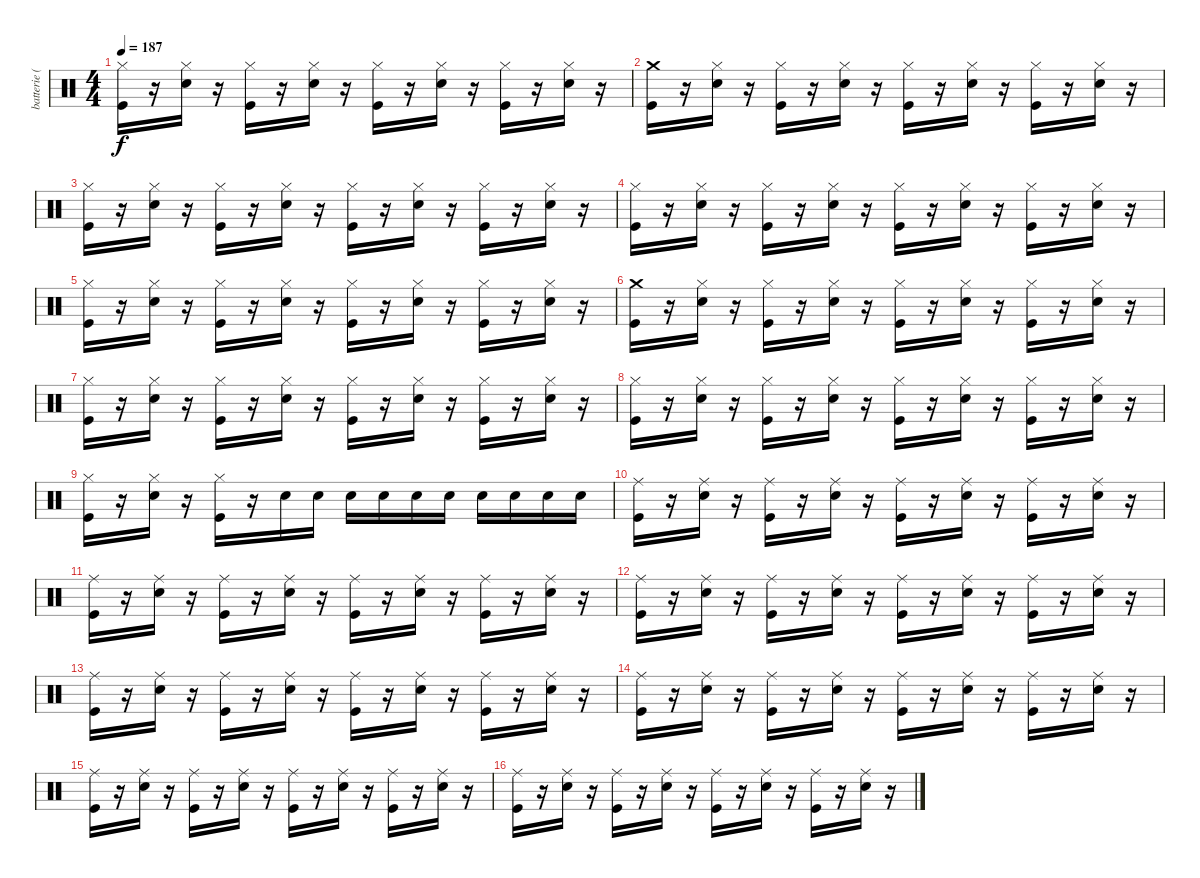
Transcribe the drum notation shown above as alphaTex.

\track ("batterie ( Mike ) " "batterie (") {instrument percussion}
\staff {score}
\articulation defaults
\ts (4 4)
\tempo 187
\clef neutral
\ks c
("Hi-Hat (closed)" "Kick (hit)").16{dy f} r.16 ("Hi-Hat (closed)" "Snare (hit) 2").16 r.16 ("Hi-Hat (closed)" "Kick (hit)").16 r.16 ("Hi-Hat (closed)" "Snare (hit) 2").16 r.16 ("Hi-Hat (closed)" "Kick (hit)").16 r.16 ("Hi-Hat (closed)" "Snare (hit) 2").16 r.16 ("Hi-Hat (closed)" "Kick (hit)").16 r.16 ("Hi-Hat (closed)" "Snare (hit) 2").16 r.16 |
("Crash medium (hit)" "Kick (hit)").16 r.16 ("Hi-Hat (closed)" "Snare (hit) 2").16 r.16 ("Hi-Hat (closed)" "Kick (hit)").16 r.16 ("Hi-Hat (closed)" "Snare (hit) 2").16 r.16 ("Hi-Hat (closed)" "Kick (hit)").16 r.16 ("Hi-Hat (closed)" "Snare (hit) 2").16 r.16 ("Hi-Hat (closed)" "Kick (hit)").16 r.16 ("Hi-Hat (closed)" "Snare (hit) 2").16 r.16 |
("Hi-Hat (closed)" "Kick (hit)").16 r.16 ("Hi-Hat (closed)" "Snare (hit) 2").16 r.16 ("Hi-Hat (closed)" "Kick (hit)").16 r.16 ("Hi-Hat (closed)" "Snare (hit) 2").16 r.16 ("Hi-Hat (closed)" "Kick (hit)").16 r.16 ("Hi-Hat (closed)" "Snare (hit) 2").16 r.16 ("Hi-Hat (closed)" "Kick (hit)").16 r.16 ("Hi-Hat (closed)" "Snare (hit) 2").16 r.16 |
("Hi-Hat (closed)" "Kick (hit)").16 r.16 ("Hi-Hat (closed)" "Snare (hit) 2").16 r.16 ("Hi-Hat (closed)" "Kick (hit)").16 r.16 ("Hi-Hat (closed)" "Snare (hit) 2").16 r.16 ("Hi-Hat (closed)" "Kick (hit)").16 r.16 ("Hi-Hat (closed)" "Snare (hit) 2").16 r.16 ("Hi-Hat (closed)" "Kick (hit)").16 r.16 ("Hi-Hat (closed)" "Snare (hit) 2").16 r.16 |
("Hi-Hat (closed)" "Kick (hit)").16 r.16 ("Hi-Hat (closed)" "Snare (hit) 2").16 r.16 ("Hi-Hat (closed)" "Kick (hit)").16 r.16 ("Hi-Hat (closed)" "Snare (hit) 2").16 r.16 ("Hi-Hat (closed)" "Kick (hit)").16 r.16 ("Hi-Hat (closed)" "Snare (hit) 2").16 r.16 ("Hi-Hat (closed)" "Kick (hit)").16 r.16 ("Hi-Hat (closed)" "Snare (hit) 2").16 r.16 |
("Crash medium (hit)" "Kick (hit)").16 r.16 ("Hi-Hat (closed)" "Snare (hit) 2").16 r.16 ("Hi-Hat (closed)" "Kick (hit)").16 r.16 ("Hi-Hat (closed)" "Snare (hit) 2").16 r.16 ("Hi-Hat (closed)" "Kick (hit)").16 r.16 ("Hi-Hat (closed)" "Snare (hit) 2").16 r.16 ("Hi-Hat (closed)" "Kick (hit)").16 r.16 ("Hi-Hat (closed)" "Snare (hit) 2").16 r.16 |
("Hi-Hat (closed)" "Kick (hit)").16 r.16 ("Hi-Hat (closed)" "Snare (hit) 2").16 r.16 ("Hi-Hat (closed)" "Kick (hit)").16 r.16 ("Hi-Hat (closed)" "Snare (hit) 2").16 r.16 ("Hi-Hat (closed)" "Kick (hit)").16 r.16 ("Hi-Hat (closed)" "Snare (hit) 2").16 r.16 ("Hi-Hat (closed)" "Kick (hit)").16 r.16 ("Hi-Hat (closed)" "Snare (hit) 2").16 r.16 |
("Hi-Hat (closed)" "Kick (hit)").16 r.16 ("Hi-Hat (closed)" "Snare (hit) 2").16 r.16 ("Hi-Hat (closed)" "Kick (hit)").16 r.16 ("Hi-Hat (closed)" "Snare (hit) 2").16 r.16 ("Hi-Hat (closed)" "Kick (hit)").16 r.16 ("Hi-Hat (closed)" "Snare (hit) 2").16 r.16 ("Hi-Hat (closed)" "Kick (hit)").16 r.16 ("Hi-Hat (closed)" "Snare (hit) 2").16 r.16 |
("Hi-Hat (closed)" "Kick (hit)").16 r.16 ("Hi-Hat (closed)" "Snare (hit) 2").16 r.16 ("Hi-Hat (closed)" "Kick (hit)").16 r.16 "Snare (hit) 2".16 "Snare (hit) 2".16 "Snare (hit) 2".16 "Snare (hit) 2".16 "Snare (hit) 2".16 "Snare (hit) 2".16 "Snare (hit) 2".16 "Snare (hit) 2".16 "Snare (hit) 2".16 "Snare (hit) 2".16 |
("Ride (middle)" "Kick (hit)").16 r.16 ("Ride (middle)" "Snare (hit) 2").16 r.16 ("Ride (middle)" "Kick (hit)").16 r.16 ("Ride (middle)" "Snare (hit) 2").16 r.16 ("Ride (middle)" "Kick (hit)").16 r.16 ("Ride (middle)" "Snare (hit) 2").16 r.16 ("Ride (middle)" "Kick (hit)").16 r.16 ("Ride (middle)" "Snare (hit) 2").16 r.16 |
("Ride (middle)" "Kick (hit)").16 r.16 ("Ride (middle)" "Snare (hit) 2").16 r.16 ("Ride (middle)" "Kick (hit)").16 r.16 ("Ride (middle)" "Snare (hit) 2").16 r.16 ("Ride (middle)" "Kick (hit)").16 r.16 ("Ride (middle)" "Snare (hit) 2").16 r.16 ("Ride (middle)" "Kick (hit)").16 r.16 ("Ride (middle)" "Snare (hit) 2").16 r.16 |
("Ride (middle)" "Kick (hit)").16 r.16 ("Ride (middle)" "Snare (hit) 2").16 r.16 ("Ride (middle)" "Kick (hit)").16 r.16 ("Ride (middle)" "Snare (hit) 2").16 r.16 ("Ride (middle)" "Kick (hit)").16 r.16 ("Ride (middle)" "Snare (hit) 2").16 r.16 ("Ride (middle)" "Kick (hit)").16 r.16 ("Ride (middle)" "Snare (hit) 2").16 r.16 |
("Ride (middle)" "Kick (hit)").16 r.16 ("Ride (middle)" "Snare (hit) 2").16 r.16 ("Ride (middle)" "Kick (hit)").16 r.16 ("Ride (middle)" "Snare (hit) 2").16 r.16 ("Ride (middle)" "Kick (hit)").16 r.16 ("Ride (middle)" "Snare (hit) 2").16 r.16 ("Ride (middle)" "Kick (hit)").16 r.16 ("Ride (middle)" "Snare (hit) 2").16 r.16 |
("Ride (middle)" "Kick (hit)").16 r.16 ("Ride (middle)" "Snare (hit) 2").16 r.16 ("Ride (middle)" "Kick (hit)").16 r.16 ("Ride (middle)" "Snare (hit) 2").16 r.16 ("Ride (middle)" "Kick (hit)").16 r.16 ("Ride (middle)" "Snare (hit) 2").16 r.16 ("Ride (middle)" "Kick (hit)").16 r.16 ("Ride (middle)" "Snare (hit) 2").16 r.16 |
("Ride (middle)" "Kick (hit)").16 r.16 ("Ride (middle)" "Snare (hit) 2").16 r.16 ("Ride (middle)" "Kick (hit)").16 r.16 ("Ride (middle)" "Snare (hit) 2").16 r.16 ("Ride (middle)" "Kick (hit)").16 r.16 ("Ride (middle)" "Snare (hit) 2").16 r.16 ("Ride (middle)" "Kick (hit)").16 r.16 ("Ride (middle)" "Snare (hit) 2").16 r.16 |
("Ride (middle)" "Kick (hit)").16 r.16 ("Ride (middle)" "Snare (hit) 2").16 r.16 ("Ride (middle)" "Kick (hit)").16 r.16 ("Ride (middle)" "Snare (hit) 2").16 r.16 ("Ride (middle)" "Kick (hit)").16 r.16 ("Ride (middle)" "Snare (hit) 2").16 r.16 ("Ride (middle)" "Kick (hit)").16 r.16 ("Ride (middle)" "Snare (hit) 2").16 r.16
